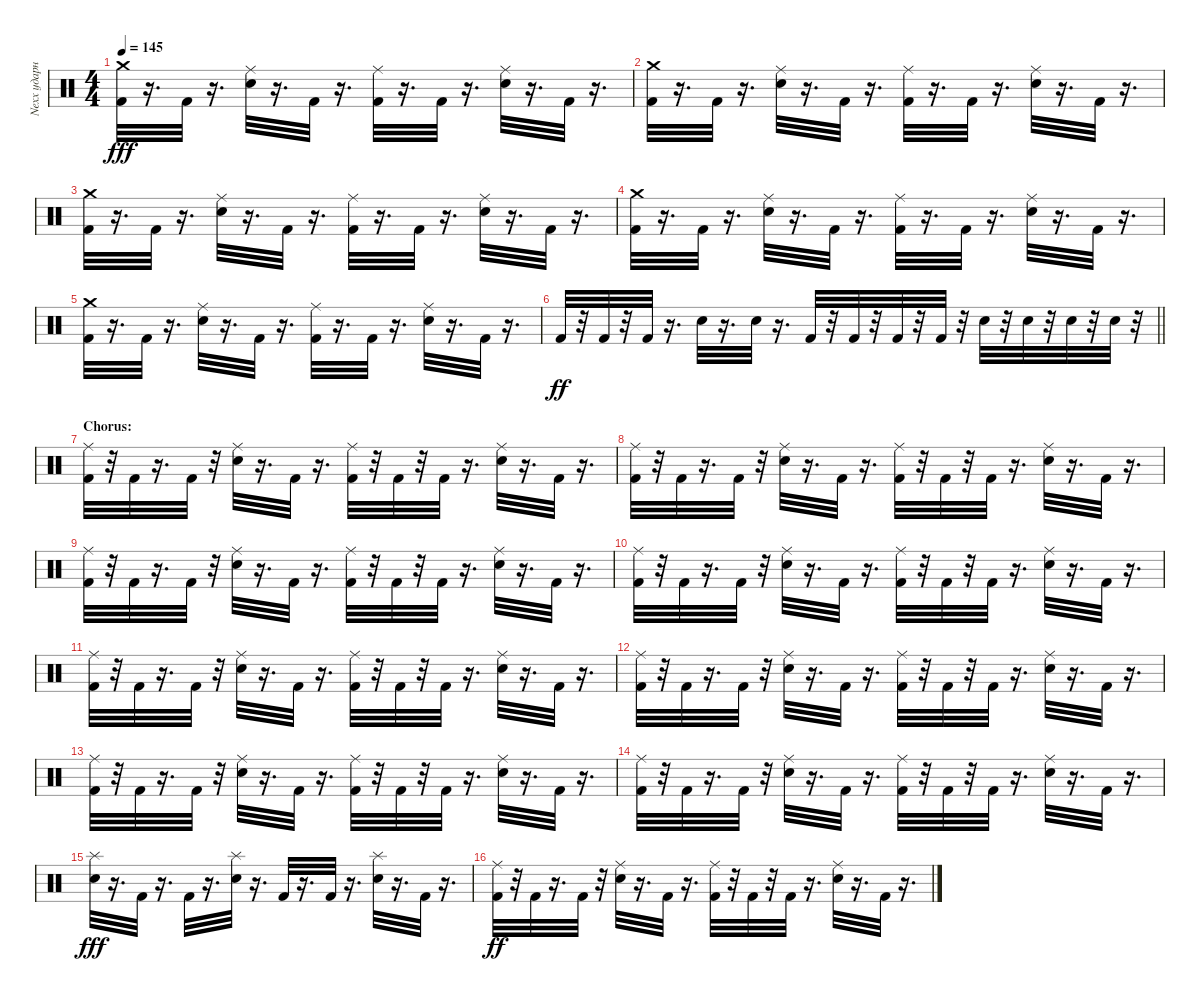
\track ("Nexx ударные" "Nexx ударн") {instrument percussion}
\staff {score}
\articulation defaults
\ts (4 4)
\tempo 145
\clef neutral
\ks c
("Crash medium (hit)" "Kick (hit) 2").32{dy fff} r.16{d} "Kick (hit) 2".32 r.16{d} ("Ride (middle)" "Snare (hit) 2").32 r.16{d} "Kick (hit) 2".32 r.16{d} ("Kick (hit) 2" "Ride (middle)").32 r.16{d} "Kick (hit) 2".32 r.16{d} ("Snare (hit) 2" "Ride (middle)").32 r.16{d} "Kick (hit) 2".32 r.16{d} |
("Crash medium (hit)" "Kick (hit) 2").32 r.16{d} "Kick (hit) 2".32 r.16{d} ("Ride (middle)" "Snare (hit) 2").32 r.16{d} "Kick (hit) 2".32 r.16{d} ("Kick (hit) 2" "Ride (middle)").32 r.16{d} "Kick (hit) 2".32 r.16{d} ("Snare (hit) 2" "Ride (middle)").32 r.16{d} "Kick (hit) 2".32 r.16{d} |
("Crash medium (hit)" "Kick (hit) 2").32 r.16{d} "Kick (hit) 2".32 r.16{d} ("Ride (middle)" "Snare (hit) 2").32 r.16{d} "Kick (hit) 2".32 r.16{d} ("Kick (hit) 2" "Ride (middle)").32 r.16{d} "Kick (hit) 2".32 r.16{d} ("Snare (hit) 2" "Ride (middle)").32 r.16{d} "Kick (hit) 2".32 r.16{d} |
("Crash medium (hit)" "Kick (hit) 2").32 r.16{d} "Kick (hit) 2".32 r.16{d} ("Ride (middle)" "Snare (hit) 2").32 r.16{d} "Kick (hit) 2".32 r.16{d} ("Kick (hit) 2" "Ride (middle)").32 r.16{d} "Kick (hit) 2".32 r.16{d} ("Snare (hit) 2" "Ride (middle)").32 r.16{d} "Kick (hit) 2".32 r.16{d} |
("Crash medium (hit)" "Kick (hit) 2").32 r.16{d} "Kick (hit) 2".32 r.16{d} ("Ride (middle)" "Snare (hit) 2").32 r.16{d} "Kick (hit) 2".32 r.16{d} ("Kick (hit) 2" "Ride (middle)").32 r.16{d} "Kick (hit) 2".32 r.16{d} ("Snare (hit) 2" "Ride (middle)").32 r.16{d} "Kick (hit) 2".32 r.16{d} |
\barLineRight lightlight "Kick (hit) 2".32{dy ff}
r.32 "Kick (hit) 2".32 r.32 "Kick (hit) 2".32 r.16{d} "Electric Snare (hit)".32 r.16{d} "Electric Snare (hit)".32 r.16{d} "Kick (hit) 2".32 r.32 "Kick (hit) 2".32 r.32 "Kick (hit) 2".32 r.32 "Kick (hit) 2".32 r.32 "Electric Snare (hit)".32 r.32 "Electric Snare (hit)".32 r.32 "Electric Snare (hit)".32 r.32 "Electric Snare (hit)".32 r.32 |
\section ("" "Chorus:")
("Ride (middle)" "Kick (hit) 2").32 r.32 "Kick (hit) 2".32 r.16{d} "Kick (hit) 2".32 r.32 ("Ride (middle)" "Electric Snare (hit)").32 r.16{d} "Kick (hit) 2".32 r.16{d} ("Ride (middle)" "Kick (hit) 2").32 r.32 "Kick (hit) 2".32 r.32 "Kick (hit) 2".32 r.16{d} ("Ride (middle)" "Electric Snare (hit)").32 r.16{d} "Kick (hit) 2".32 r.16{d} |
("Ride (middle)" "Kick (hit) 2").32 r.32 "Kick (hit) 2".32 r.16{d} "Kick (hit) 2".32 r.32 ("Ride (middle)" "Electric Snare (hit)").32 r.16{d} "Kick (hit) 2".32 r.16{d} ("Ride (middle)" "Kick (hit) 2").32 r.32 "Kick (hit) 2".32 r.32 "Kick (hit) 2".32 r.16{d} ("Ride (middle)" "Electric Snare (hit)").32 r.16{d} "Kick (hit) 2".32 r.16{d} |
("Ride (middle)" "Kick (hit) 2").32 r.32 "Kick (hit) 2".32 r.16{d} "Kick (hit) 2".32 r.32 ("Ride (middle)" "Electric Snare (hit)").32 r.16{d} "Kick (hit) 2".32 r.16{d} ("Ride (middle)" "Kick (hit) 2").32 r.32 "Kick (hit) 2".32 r.32 "Kick (hit) 2".32 r.16{d} ("Ride (middle)" "Electric Snare (hit)").32 r.16{d} "Kick (hit) 2".32 r.16{d} |
("Ride (middle)" "Kick (hit) 2").32 r.32 "Kick (hit) 2".32 r.16{d} "Kick (hit) 2".32 r.32 ("Ride (middle)" "Electric Snare (hit)").32 r.16{d} "Kick (hit) 2".32 r.16{d} ("Ride (middle)" "Kick (hit) 2").32 r.32 "Kick (hit) 2".32 r.32 "Kick (hit) 2".32 r.16{d} ("Ride (middle)" "Electric Snare (hit)").32 r.16{d} "Kick (hit) 2".32 r.16{d} |
("Ride (middle)" "Kick (hit) 2").32 r.32 "Kick (hit) 2".32 r.16{d} "Kick (hit) 2".32 r.32 ("Ride (middle)" "Electric Snare (hit)").32 r.16{d} "Kick (hit) 2".32 r.16{d} ("Ride (middle)" "Kick (hit) 2").32 r.32 "Kick (hit) 2".32 r.32 "Kick (hit) 2".32 r.16{d} ("Ride (middle)" "Electric Snare (hit)").32 r.16{d} "Kick (hit) 2".32 r.16{d} |
("Ride (middle)" "Kick (hit) 2").32 r.32 "Kick (hit) 2".32 r.16{d} "Kick (hit) 2".32 r.32 ("Ride (middle)" "Electric Snare (hit)").32 r.16{d} "Kick (hit) 2".32 r.16{d} ("Ride (middle)" "Kick (hit) 2").32 r.32 "Kick (hit) 2".32 r.32 "Kick (hit) 2".32 r.16{d} ("Ride (middle)" "Electric Snare (hit)").32 r.16{d} "Kick (hit) 2".32 r.16{d} |
("Ride (middle)" "Kick (hit) 2").32 r.32 "Kick (hit) 2".32 r.16{d} "Kick (hit) 2".32 r.32 ("Ride (middle)" "Electric Snare (hit)").32 r.16{d} "Kick (hit) 2".32 r.16{d} ("Ride (middle)" "Kick (hit) 2").32 r.32 "Kick (hit) 2".32 r.32 "Kick (hit) 2".32 r.16{d} ("Ride (middle)" "Electric Snare (hit)").32 r.16{d} "Kick (hit) 2".32 r.16{d} |
("Ride (middle)" "Kick (hit) 2").32 r.32 "Kick (hit) 2".32 r.16{d} "Kick (hit) 2".32 r.32 ("Ride (middle)" "Electric Snare (hit)").32 r.16{d} "Kick (hit) 2".32 r.16{d} ("Ride (middle)" "Kick (hit) 2").32 r.32 "Kick (hit) 2".32 r.32 "Kick (hit) 2".32 r.16{d} ("Ride (middle)" "Electric Snare (hit)").32 r.16{d} "Kick (hit) 2".32 r.16{d} |
("Snare (hit) 2" "Splash (hit)").32{dy fff} r.16{d} "Kick (hit) 2".32 r.16{d} "Kick (hit) 2".32 r.16{d} ("Splash (hit)" "Snare (hit) 2").32 r.16{d} "Kick (hit) 2".32 r.16{d} "Kick (hit) 2".32 r.16{d} ("Splash (hit)" "Snare (hit) 2").32 r.16{d} "Kick (hit) 2".32 r.16{d} |
("Ride (middle)" "Kick (hit) 2").32{dy ff} r.32 "Kick (hit) 2".32 r.16{d} "Kick (hit) 2".32 r.32 ("Ride (middle)" "Electric Snare (hit)").32 r.16{d} "Kick (hit) 2".32 r.16{d} ("Ride (middle)" "Kick (hit) 2").32 r.32 "Kick (hit) 2".32 r.32 "Kick (hit) 2".32 r.16{d} ("Ride (middle)" "Electric Snare (hit)").32 r.16{d} "Kick (hit) 2".32 r.16{d}
